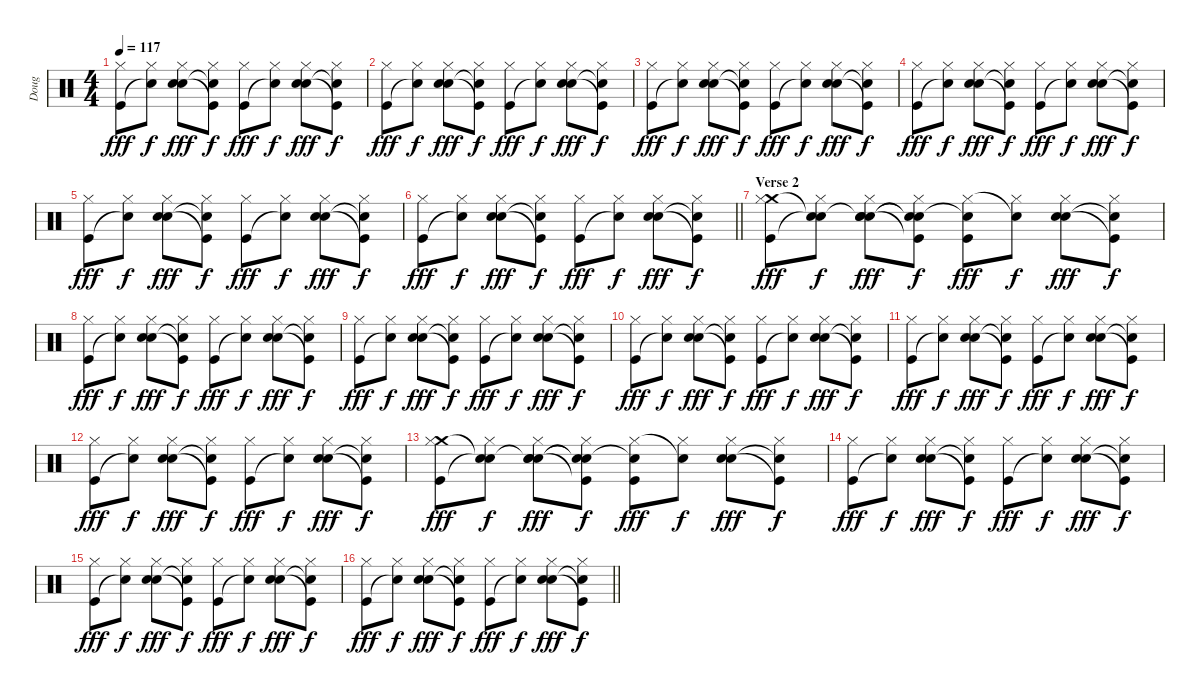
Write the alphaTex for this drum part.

\track ("Doug" "Doug") {instrument percussion}
\staff {score}
\articulation defaults
\ts (4 4)
\tempo 117
\clef neutral
\ks c
("Hi-Hat (closed)" "Kick (hit)").8{dy fff} ("Hi-Hat (closed)" "Snare (hit)"{t}).8{dy f} ("Hand Clap (hit)" "Hi-Hat (closed)" "Snare (hit) 2").8{dy fff} ("Snare (hit)"{t} "Hi-Hat (closed)" "Kick (hit)"{t}).8{dy f} ("Hi-Hat (closed)" "Kick (hit)").8{dy fff} ("Hi-Hat (closed)" "Snare (hit)"{t}).8{dy f} ("Hand Clap (hit)" "Hi-Hat (closed)" "Snare (hit) 2").8{dy fff} ("Snare (hit)"{t} "Hi-Hat (closed)" "Kick (hit)"{t}).8{dy f} |
("Hi-Hat (closed)" "Kick (hit)").8{dy fff} ("Hi-Hat (closed)" "Snare (hit)"{t}).8{dy f} ("Hand Clap (hit)" "Hi-Hat (closed)" "Snare (hit) 2").8{dy fff} ("Snare (hit)"{t} "Hi-Hat (closed)" "Kick (hit)"{t}).8{dy f} ("Hi-Hat (closed)" "Kick (hit)").8{dy fff} ("Hi-Hat (closed)" "Snare (hit)"{t}).8{dy f} ("Hand Clap (hit)" "Hi-Hat (closed)" "Snare (hit) 2").8{dy fff} ("Snare (hit)"{t} "Hi-Hat (closed)" "Kick (hit)"{t}).8{dy f} |
("Hi-Hat (closed)" "Kick (hit)").8{dy fff} ("Hi-Hat (closed)" "Snare (hit)"{t}).8{dy f} ("Hand Clap (hit)" "Hi-Hat (closed)" "Snare (hit) 2").8{dy fff} ("Snare (hit)"{t} "Hi-Hat (closed)" "Kick (hit)"{t}).8{dy f} ("Hi-Hat (closed)" "Kick (hit)").8{dy fff} ("Hi-Hat (closed)" "Snare (hit)"{t}).8{dy f} ("Hand Clap (hit)" "Hi-Hat (closed)" "Snare (hit) 2").8{dy fff} ("Snare (hit)"{t} "Hi-Hat (closed)" "Kick (hit)"{t}).8{dy f} |
("Hi-Hat (closed)" "Kick (hit)").8{dy fff} ("Hi-Hat (closed)" "Snare (hit)"{t}).8{dy f} ("Hand Clap (hit)" "Hi-Hat (closed)" "Snare (hit) 2").8{dy fff} ("Snare (hit)"{t} "Hi-Hat (closed)" "Kick (hit)"{t}).8{dy f} ("Hi-Hat (closed)" "Kick (hit)").8{dy fff} ("Hi-Hat (closed)" "Snare (hit)"{t}).8{dy f} ("Hand Clap (hit)" "Hi-Hat (closed)" "Snare (hit) 2").8{dy fff} ("Snare (hit)"{t} "Hi-Hat (closed)" "Kick (hit)"{t}).8{dy f} |
("Hi-Hat (closed)" "Kick (hit)").8{dy fff} ("Hi-Hat (closed)" "Snare (hit)"{t}).8{dy f} ("Hand Clap (hit)" "Hi-Hat (closed)" "Snare (hit) 2").8{dy fff} ("Snare (hit)"{t} "Hi-Hat (closed)" "Kick (hit)"{t}).8{dy f} ("Hi-Hat (closed)" "Kick (hit)").8{dy fff} ("Hi-Hat (closed)" "Snare (hit)"{t}).8{dy f} ("Hand Clap (hit)" "Hi-Hat (closed)" "Snare (hit) 2").8{dy fff} ("Snare (hit)"{t} "Hi-Hat (closed)" "Kick (hit)"{t}).8{dy f} |
\barLineRight lightlight
("Hi-Hat (closed)" "Kick (hit)").8{dy fff} ("Hi-Hat (closed)" "Snare (hit)"{t}).8{dy f} ("Hand Clap (hit)" "Hi-Hat (closed)" "Snare (hit) 2").8{dy fff} ("Snare (hit)"{t} "Hi-Hat (closed)" "Kick (hit)"{t}).8{dy f} ("Hi-Hat (closed)" "Kick (hit)").8{dy fff} ("Hi-Hat (closed)" "Snare (hit)"{t}).8{dy f} ("Hand Clap (hit)" "Hi-Hat (closed)" "Snare (hit) 2").8{dy fff} ("Snare (hit)"{t} "Hi-Hat (closed)" "Kick (hit)"{t}).8{dy f} |
\section ("" "Verse 2")
("Crash medium (hit)" "Hi-Hat (closed)" "Kick (hit)").8{dy fff} ("Snare (hit)"{t} "Hi-Hat (closed)" "Snare (hit)"{t}).8{dy f} ("Snare (hit)"{t} "Hi-Hat (closed)" "Snare (hit) 2" "Hand Clap (hit)").8{dy fff} ("Snare (hit)"{t} "Hi-Hat (closed)" "Kick (hit)"{t} "Snare (hit)"{t}).8{dy f} ("Snare (hit)"{t} "Hi-Hat (closed)" "Kick (hit)").8{dy fff} ("Hi-Hat (closed)" "Snare (hit)"{t}).8{dy f} ("Hi-Hat (closed)" "Snare (hit) 2" "Hand Clap (hit)").8{dy fff} ("Hi-Hat (closed)" "Kick (hit)"{t} "Snare (hit)"{t}).8{dy f} |
("Hi-Hat (closed)" "Kick (hit)").8{dy fff} ("Hi-Hat (closed)" "Snare (hit)"{t}).8{dy f} ("Hand Clap (hit)" "Hi-Hat (closed)" "Snare (hit) 2").8{dy fff} ("Snare (hit)"{t} "Hi-Hat (closed)" "Kick (hit)"{t}).8{dy f} ("Hi-Hat (closed)" "Kick (hit)").8{dy fff} ("Hi-Hat (closed)" "Snare (hit)"{t}).8{dy f} ("Hand Clap (hit)" "Hi-Hat (closed)" "Snare (hit) 2").8{dy fff} ("Snare (hit)"{t} "Hi-Hat (closed)" "Kick (hit)"{t}).8{dy f} |
("Hi-Hat (closed)" "Kick (hit)").8{dy fff} ("Hi-Hat (closed)" "Snare (hit)"{t}).8{dy f} ("Hand Clap (hit)" "Hi-Hat (closed)" "Snare (hit) 2").8{dy fff} ("Snare (hit)"{t} "Hi-Hat (closed)" "Kick (hit)"{t}).8{dy f} ("Hi-Hat (closed)" "Kick (hit)").8{dy fff} ("Hi-Hat (closed)" "Snare (hit)"{t}).8{dy f} ("Hand Clap (hit)" "Hi-Hat (closed)" "Snare (hit) 2").8{dy fff} ("Snare (hit)"{t} "Hi-Hat (closed)" "Kick (hit)"{t}).8{dy f} |
("Hi-Hat (closed)" "Kick (hit)").8{dy fff} ("Hi-Hat (closed)" "Snare (hit)"{t}).8{dy f} ("Hand Clap (hit)" "Hi-Hat (closed)" "Snare (hit) 2").8{dy fff} ("Snare (hit)"{t} "Hi-Hat (closed)" "Kick (hit)"{t}).8{dy f} ("Hi-Hat (closed)" "Kick (hit)").8{dy fff} ("Hi-Hat (closed)" "Snare (hit)"{t}).8{dy f} ("Hand Clap (hit)" "Hi-Hat (closed)" "Snare (hit) 2").8{dy fff} ("Snare (hit)"{t} "Hi-Hat (closed)" "Kick (hit)"{t}).8{dy f} |
("Hi-Hat (closed)" "Kick (hit)").8{dy fff} ("Hi-Hat (closed)" "Snare (hit)"{t}).8{dy f} ("Hand Clap (hit)" "Hi-Hat (closed)" "Snare (hit) 2").8{dy fff} ("Snare (hit)"{t} "Hi-Hat (closed)" "Kick (hit)"{t}).8{dy f} ("Hi-Hat (closed)" "Kick (hit)").8{dy fff} ("Hi-Hat (closed)" "Snare (hit)"{t}).8{dy f} ("Hand Clap (hit)" "Hi-Hat (closed)" "Snare (hit) 2").8{dy fff} ("Snare (hit)"{t} "Hi-Hat (closed)" "Kick (hit)"{t}).8{dy f} |
("Hi-Hat (closed)" "Kick (hit)").8{dy fff} ("Hi-Hat (closed)" "Snare (hit)"{t}).8{dy f} ("Hand Clap (hit)" "Hi-Hat (closed)" "Snare (hit) 2").8{dy fff} ("Snare (hit)"{t} "Hi-Hat (closed)" "Kick (hit)"{t}).8{dy f} ("Hi-Hat (closed)" "Kick (hit)").8{dy fff} ("Hi-Hat (closed)" "Snare (hit)"{t}).8{dy f} ("Hand Clap (hit)" "Hi-Hat (closed)" "Snare (hit) 2").8{dy fff} ("Snare (hit)"{t} "Hi-Hat (closed)" "Kick (hit)"{t}).8{dy f} |
("Crash medium (hit)" "Hi-Hat (closed)" "Kick (hit)").8{dy fff} ("Snare (hit)"{t} "Hi-Hat (closed)" "Snare (hit)"{t}).8{dy f} ("Snare (hit)"{t} "Hi-Hat (closed)" "Snare (hit) 2" "Hand Clap (hit)").8{dy fff} ("Snare (hit)"{t} "Hi-Hat (closed)" "Kick (hit)"{t} "Snare (hit)"{t}).8{dy f} ("Snare (hit)"{t} "Hi-Hat (closed)" "Kick (hit)").8{dy fff} ("Hi-Hat (closed)" "Snare (hit)"{t}).8{dy f} ("Hi-Hat (closed)" "Snare (hit) 2" "Hand Clap (hit)").8{dy fff} ("Hi-Hat (closed)" "Kick (hit)"{t} "Snare (hit)"{t}).8{dy f} |
("Hi-Hat (closed)" "Kick (hit)").8{dy fff} ("Hi-Hat (closed)" "Snare (hit)"{t}).8{dy f} ("Hand Clap (hit)" "Hi-Hat (closed)" "Snare (hit) 2").8{dy fff} ("Snare (hit)"{t} "Hi-Hat (closed)" "Kick (hit)"{t}).8{dy f} ("Hi-Hat (closed)" "Kick (hit)").8{dy fff} ("Hi-Hat (closed)" "Snare (hit)"{t}).8{dy f} ("Hand Clap (hit)" "Hi-Hat (closed)" "Snare (hit) 2").8{dy fff} ("Snare (hit)"{t} "Hi-Hat (closed)" "Kick (hit)"{t}).8{dy f} |
("Hi-Hat (closed)" "Kick (hit)").8{dy fff} ("Hi-Hat (closed)" "Snare (hit)"{t}).8{dy f} ("Hand Clap (hit)" "Hi-Hat (closed)" "Snare (hit) 2").8{dy fff} ("Snare (hit)"{t} "Hi-Hat (closed)" "Kick (hit)"{t}).8{dy f} ("Hi-Hat (closed)" "Kick (hit)").8{dy fff} ("Hi-Hat (closed)" "Snare (hit)"{t}).8{dy f} ("Hand Clap (hit)" "Hi-Hat (closed)" "Snare (hit) 2").8{dy fff} ("Snare (hit)"{t} "Hi-Hat (closed)" "Kick (hit)"{t}).8{dy f} |
\barLineRight lightlight
("Hi-Hat (closed)" "Kick (hit)").8{dy fff} ("Hi-Hat (closed)" "Snare (hit)"{t}).8{dy f} ("Hand Clap (hit)" "Hi-Hat (closed)" "Snare (hit) 2").8{dy fff} ("Snare (hit)"{t} "Hi-Hat (closed)" "Kick (hit)"{t}).8{dy f} ("Hi-Hat (closed)" "Kick (hit)").8{dy fff} ("Hi-Hat (closed)" "Snare (hit)"{t}).8{dy f} ("Hand Clap (hit)" "Hi-Hat (closed)" "Snare (hit) 2").8{dy fff} ("Snare (hit)"{t} "Hi-Hat (closed)" "Kick (hit)"{t}).8{dy f}
